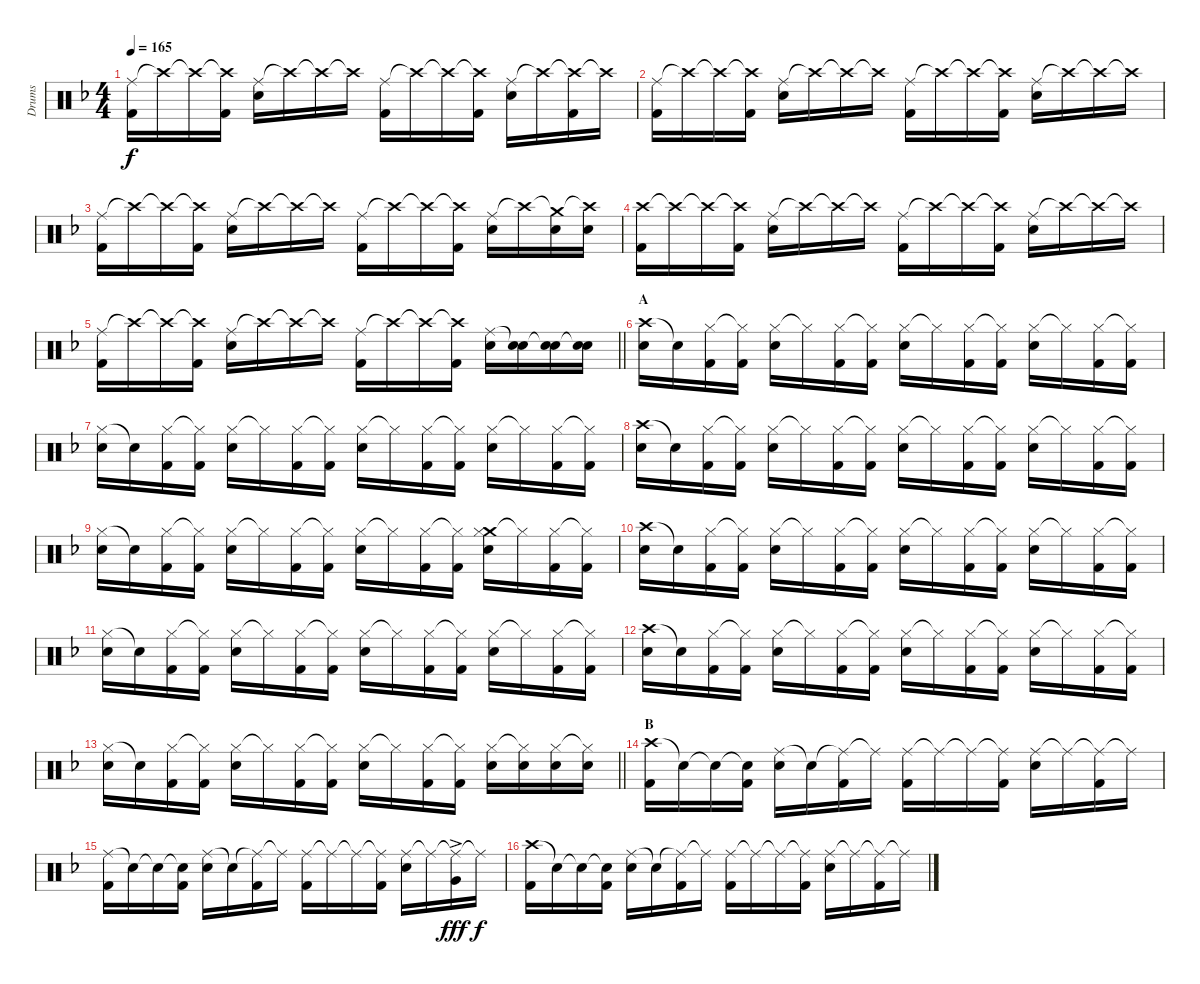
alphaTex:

\track ("Drums" "Drums") {instrument percussion}
\staff {score}
\articulation defaults
\ts (4 4)
\tempo 165
\clef neutral
\ks f
("Ride (middle)" "Kick (hit) 2").16{dy f} "Crash high (hit)"{t}.16 "Crash high (hit)"{t}.16 ("Crash high (hit)"{t} "Kick (hit) 2").16 ("Ride (middle)" "Snare (hit) 2").16 "Crash high (hit)"{t}.16 "Crash high (hit)"{t}.16 "Crash high (hit)"{t}.16 ("Ride (middle)" "Kick (hit) 2").16 "Crash high (hit)"{t}.16 "Crash high (hit)"{t}.16 ("Crash high (hit)"{t} "Kick (hit) 2").16 ("Ride (middle)" "Snare (hit) 2").16 "Crash high (hit)"{t}.16 ("Crash high (hit)"{t} "Kick (hit) 2").16 "Crash high (hit)"{t}.16 |
("Ride (middle)" "Kick (hit) 2").16 "Crash high (hit)"{t}.16 "Crash high (hit)"{t}.16 ("Crash high (hit)"{t} "Kick (hit) 2").16 ("Ride (middle)" "Snare (hit) 2").16 "Crash high (hit)"{t}.16 "Crash high (hit)"{t}.16 "Crash high (hit)"{t}.16 ("Ride (middle)" "Kick (hit) 2").16 "Crash high (hit)"{t}.16 "Crash high (hit)"{t}.16 ("Crash high (hit)"{t} "Kick (hit) 2").16 ("Ride (middle)" "Snare (hit) 2").16 "Crash high (hit)"{t}.16 "Crash high (hit)"{t}.16 "Crash high (hit)"{t}.16 |
("Ride (middle)" "Kick (hit) 2").16 "Crash high (hit)"{t}.16 "Crash high (hit)"{t}.16 ("Crash high (hit)"{t} "Kick (hit) 2").16 ("Ride (middle)" "Snare (hit) 2").16 "Crash high (hit)"{t}.16 "Crash high (hit)"{t}.16 "Crash high (hit)"{t}.16 ("Ride (middle)" "Kick (hit) 2").16 "Crash high (hit)"{t}.16 "Crash high (hit)"{t}.16 ("Crash high (hit)"{t} "Kick (hit) 2").16 ("Ride (middle)" "Snare (hit) 2").16 "Crash high (hit)"{t}.16 ("Crash medium (hit)"{t} "Snare (hit) 2").16 ("Crash high (hit)"{t} "Snare (hit) 2").16 |
("Crash high (hit)" "Kick (hit) 2").16 "Crash high (hit)"{t}.16 "Crash high (hit)"{t}.16 ("Crash high (hit)"{t} "Kick (hit) 2").16 ("Ride (middle)" "Snare (hit) 2").16 "Crash high (hit)"{t}.16 "Crash high (hit)"{t}.16 "Crash high (hit)"{t}.16 ("Ride (middle)" "Kick (hit) 2").16 "Crash high (hit)"{t}.16 "Crash high (hit)"{t}.16 ("Crash high (hit)"{t} "Kick (hit) 2").16 ("Ride (middle)" "Snare (hit) 2").16 "Crash high (hit)"{t}.16 "Crash high (hit)"{t}.16 "Crash high (hit)"{t}.16 |
\barLineRight lightlight
("Ride (middle)" "Kick (hit) 2").16 "Crash high (hit)"{t}.16 "Crash high (hit)"{t}.16 ("Crash high (hit)"{t} "Kick (hit) 2").16 ("Ride (middle)" "Snare (hit) 2").16 "Crash high (hit)"{t}.16 "Crash high (hit)"{t}.16 "Crash high (hit)"{t}.16 ("Ride (middle)" "Kick (hit) 2").16 "Crash high (hit)"{t}.16 "Crash high (hit)"{t}.16 ("Crash high (hit)"{t} "Kick (hit) 2").16 ("Ride (middle)" "Snare (hit) 2").16 ("Snare (hit)"{t} "Snare (hit) 2").16 ("Snare (hit)"{t} "Snare (hit) 2").16 ("Snare (hit)"{t} "Snare (hit) 2").16 |
\section ("" "A")
("Crash high (hit)" "Snare (hit) 2").16 "Snare (hit)"{t}.16 ("Hi-Hat (closed)" "Kick (hit) 2").16 ("Hi-Hat (closed)"{t} "Kick (hit) 2").16 ("Hi-Hat (closed)" "Snare (hit) 2").16 "Hi-Hat (closed)"{t}.16 ("Hi-Hat (closed)" "Kick (hit) 2").16 ("Hi-Hat (closed)"{t} "Kick (hit) 2").16 ("Hi-Hat (closed)" "Snare (hit) 2").16 "Hi-Hat (closed)"{t}.16 ("Hi-Hat (closed)" "Kick (hit) 2").16 ("Hi-Hat (closed)"{t} "Kick (hit) 2").16 ("Hi-Hat (closed)" "Snare (hit) 2").16 "Hi-Hat (closed)"{t}.16 ("Hi-Hat (closed)" "Kick (hit) 2").16 ("Hi-Hat (closed)"{t} "Kick (hit) 2").16 |
("Hi-Hat (closed)" "Snare (hit) 2").16 "Snare (hit)"{t}.16 ("Hi-Hat (closed)" "Kick (hit) 2").16 ("Hi-Hat (closed)"{t} "Kick (hit) 2").16 ("Hi-Hat (closed)" "Snare (hit) 2").16 "Hi-Hat (closed)"{t}.16 ("Hi-Hat (closed)" "Kick (hit) 2").16 ("Hi-Hat (closed)"{t} "Kick (hit) 2").16 ("Hi-Hat (closed)" "Snare (hit) 2").16 "Hi-Hat (closed)"{t}.16 ("Hi-Hat (closed)" "Kick (hit) 2").16 ("Hi-Hat (closed)"{t} "Kick (hit) 2").16 ("Hi-Hat (closed)" "Snare (hit) 2").16 "Hi-Hat (closed)"{t}.16 ("Hi-Hat (closed)" "Kick (hit) 2").16 ("Hi-Hat (closed)"{t} "Kick (hit) 2").16 |
("Crash high (hit)" "Snare (hit) 2").16 "Snare (hit)"{t}.16 ("Hi-Hat (closed)" "Kick (hit) 2").16 ("Hi-Hat (closed)"{t} "Kick (hit) 2").16 ("Hi-Hat (closed)" "Snare (hit) 2").16 "Hi-Hat (closed)"{t}.16 ("Hi-Hat (closed)" "Kick (hit) 2").16 ("Hi-Hat (closed)"{t} "Kick (hit) 2").16 ("Hi-Hat (closed)" "Snare (hit) 2").16 "Hi-Hat (closed)"{t}.16 ("Hi-Hat (closed)" "Kick (hit) 2").16 ("Hi-Hat (closed)"{t} "Kick (hit) 2").16 ("Hi-Hat (closed)" "Snare (hit) 2").16 "Hi-Hat (closed)"{t}.16 ("Hi-Hat (closed)" "Kick (hit) 2").16 ("Hi-Hat (closed)"{t} "Kick (hit) 2").16 |
("Hi-Hat (closed)" "Snare (hit) 2").16 "Snare (hit)"{t}.16 ("Hi-Hat (closed)" "Kick (hit) 2").16 ("Hi-Hat (closed)"{t} "Kick (hit) 2").16 ("Hi-Hat (closed)" "Snare (hit) 2").16 "Hi-Hat (closed)"{t}.16 ("Hi-Hat (closed)" "Kick (hit) 2").16 ("Hi-Hat (closed)"{t} "Kick (hit) 2").16 ("Hi-Hat (closed)" "Snare (hit) 2").16 "Hi-Hat (closed)"{t}.16 ("Hi-Hat (closed)" "Kick (hit) 2").16 ("Hi-Hat (closed)"{t} "Kick (hit) 2").16 ("Crash medium (hit)" "Hi-Hat (closed)" "Snare (hit) 2").16 "Hi-Hat (closed)"{t}.16 ("Hi-Hat (closed)" "Kick (hit) 2").16 ("Hi-Hat (closed)"{t} "Kick (hit) 2").16 |
("Crash high (hit)" "Snare (hit) 2").16 "Snare (hit)"{t}.16 ("Hi-Hat (closed)" "Kick (hit) 2").16 ("Hi-Hat (closed)"{t} "Kick (hit) 2").16 ("Hi-Hat (closed)" "Snare (hit) 2").16 "Hi-Hat (closed)"{t}.16 ("Hi-Hat (closed)" "Kick (hit) 2").16 ("Hi-Hat (closed)"{t} "Kick (hit) 2").16 ("Hi-Hat (closed)" "Snare (hit) 2").16 "Hi-Hat (closed)"{t}.16 ("Hi-Hat (closed)" "Kick (hit) 2").16 ("Hi-Hat (closed)"{t} "Kick (hit) 2").16 ("Hi-Hat (closed)" "Snare (hit) 2").16 "Hi-Hat (closed)"{t}.16 ("Hi-Hat (closed)" "Kick (hit) 2").16 ("Hi-Hat (closed)"{t} "Kick (hit) 2").16 |
("Hi-Hat (closed)" "Snare (hit) 2").16 "Snare (hit)"{t}.16 ("Hi-Hat (closed)" "Kick (hit) 2").16 ("Hi-Hat (closed)"{t} "Kick (hit) 2").16 ("Hi-Hat (closed)" "Snare (hit) 2").16 "Hi-Hat (closed)"{t}.16 ("Hi-Hat (closed)" "Kick (hit) 2").16 ("Hi-Hat (closed)"{t} "Kick (hit) 2").16 ("Hi-Hat (closed)" "Snare (hit) 2").16 "Hi-Hat (closed)"{t}.16 ("Hi-Hat (closed)" "Kick (hit) 2").16 ("Hi-Hat (closed)"{t} "Kick (hit) 2").16 ("Hi-Hat (closed)" "Snare (hit) 2").16 "Hi-Hat (closed)"{t}.16 ("Hi-Hat (closed)" "Kick (hit) 2").16 ("Hi-Hat (closed)"{t} "Kick (hit) 2").16 |
("Crash high (hit)" "Snare (hit) 2").16 "Snare (hit)"{t}.16 ("Hi-Hat (closed)" "Kick (hit) 2").16 ("Hi-Hat (closed)"{t} "Kick (hit) 2").16 ("Hi-Hat (closed)" "Snare (hit) 2").16 "Hi-Hat (closed)"{t}.16 ("Hi-Hat (closed)" "Kick (hit) 2").16 ("Hi-Hat (closed)"{t} "Kick (hit) 2").16 ("Hi-Hat (closed)" "Snare (hit) 2").16 "Hi-Hat (closed)"{t}.16 ("Hi-Hat (closed)" "Kick (hit) 2").16 ("Hi-Hat (closed)"{t} "Kick (hit) 2").16 ("Hi-Hat (closed)" "Snare (hit) 2").16 "Hi-Hat (closed)"{t}.16 ("Hi-Hat (closed)" "Kick (hit) 2").16 ("Hi-Hat (closed)"{t} "Kick (hit) 2").16 |
\barLineRight lightlight
("Hi-Hat (closed)" "Snare (hit) 2").16 "Snare (hit)"{t}.16 ("Hi-Hat (closed)" "Kick (hit) 2").16 ("Hi-Hat (closed)"{t} "Kick (hit) 2").16 ("Hi-Hat (closed)" "Snare (hit) 2").16 "Hi-Hat (closed)"{t}.16 ("Hi-Hat (closed)" "Kick (hit) 2").16 ("Hi-Hat (closed)"{t} "Kick (hit) 2").16 ("Hi-Hat (closed)" "Snare (hit) 2").16 "Hi-Hat (closed)"{t}.16 ("Hi-Hat (closed)" "Kick (hit) 2").16 ("Hi-Hat (closed)"{t} "Kick (hit) 2").16 ("Hi-Hat (closed)" "Snare (hit) 2").16 ("Hi-Hat (closed)"{t} "Snare (hit) 2").16 ("Hi-Hat (closed)" "Snare (hit) 2").16 ("Hi-Hat (closed)"{t} "Snare (hit) 2").16 |
\section ("" "B")
("Crash high (hit)" "Kick (hit) 2").16 "Snare (hit)"{t}.16 "Snare (hit)"{t}.16 ("Snare (hit)"{t} "Kick (hit) 2").16 ("Ride (middle)" "Snare (hit) 2").16 "Snare (hit)"{t}.16 ("Ride (middle)"{t} "Kick (hit) 2").16 "Ride (middle)"{t}.16 ("Ride (middle)" "Kick (hit) 2").16 "Ride (middle)"{t}.16 "Ride (middle)"{t}.16 ("Ride (middle)"{t} "Kick (hit) 2").16 ("Ride (middle)" "Snare (hit) 2").16 "Ride (middle)"{t}.16 ("Ride (middle)"{t} "Kick (hit) 2").16 "Ride (middle)"{t}.16 |
("Ride (middle)" "Kick (hit) 2").16 "Snare (hit)"{t}.16 "Snare (hit)"{t}.16 ("Snare (hit)"{t} "Kick (hit) 2").16 ("Ride (middle)" "Snare (hit) 2").16 "Snare (hit)"{t}.16 ("Ride (middle)"{t} "Kick (hit) 2").16 "Ride (middle)"{t}.16 ("Ride (middle)" "Kick (hit) 2").16 "Ride (middle)"{t}.16 "Ride (middle)"{t}.16 ("Ride (middle)"{t} "Kick (hit) 2").16 ("Ride (middle)" "Snare (hit) 2").16 "Ride (middle)"{t}.16 ("Ride (middle)"{t} "Very Low Tom (hit)"{ac}).16{dy fff} "Ride (middle)"{t}.16{dy f} |
("Crash high (hit)" "Kick (hit) 2").16 "Snare (hit)"{t}.16 "Snare (hit)"{t}.16 ("Snare (hit)"{t} "Kick (hit) 2").16 ("Ride (middle)" "Snare (hit) 2").16 "Snare (hit)"{t}.16 ("Ride (middle)"{t} "Kick (hit) 2").16 "Ride (middle)"{t}.16 ("Ride (middle)" "Kick (hit) 2").16 "Ride (middle)"{t}.16 "Ride (middle)"{t}.16 ("Ride (middle)"{t} "Kick (hit) 2").16 ("Ride (middle)" "Snare (hit) 2").16 "Ride (middle)"{t}.16 ("Ride (middle)"{t} "Kick (hit) 2").16 "Ride (middle)"{t}.16
